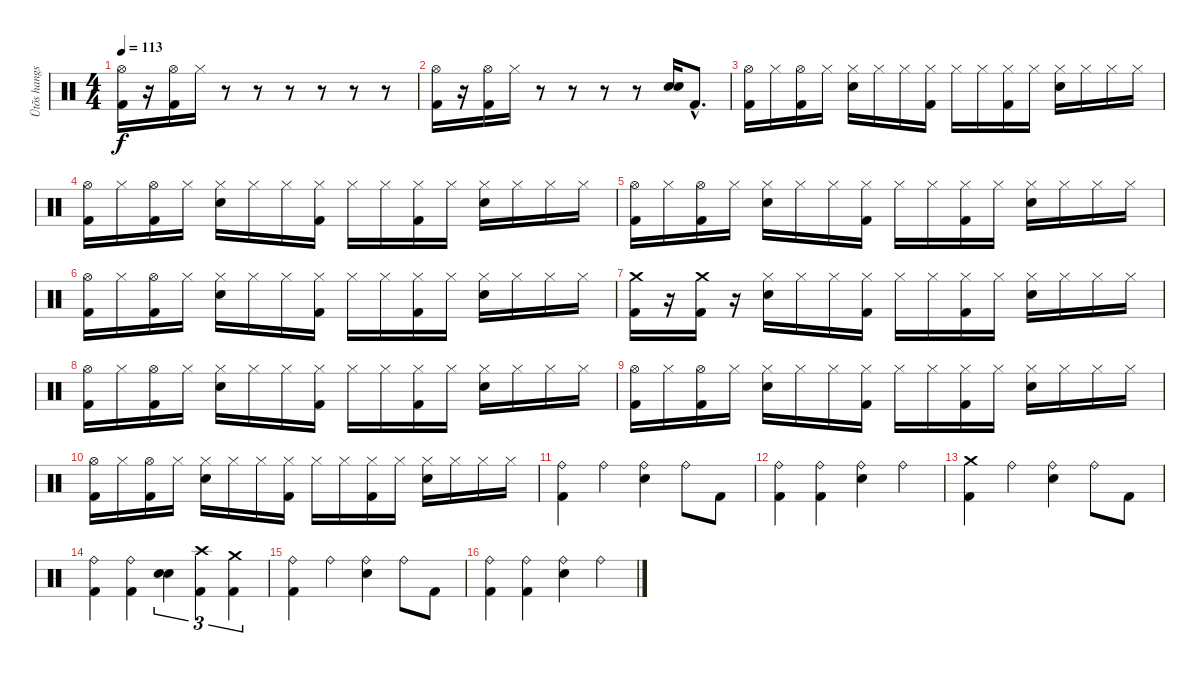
\track ("Ütõs hangszer" "Ütõs hangs") {instrument percussion}
\staff {score}
\articulation defaults
\ts (4 4)
\tempo 113
\clef neutral
\ks c
("Hi-Hat (open)" "Kick (hit) 2").16{dy f} r.16 ("Hi-Hat (open)" "Kick (hit) 2").16 "Hi-Hat (closed)".16 r.8 r.8 r.8 r.8 r.8 r.8 |
("Hi-Hat (open)" "Kick (hit) 2").16 r.16 ("Hi-Hat (open)" "Kick (hit) 2").16 "Hi-Hat (closed)".16 r.8 r.8 r.8 r.8 ("Electric Snare (hit)" "Electric Snare (hit)").16 "Kick (hit) 2"{hac}.8{d} |
("Hi-Hat (open)" "Kick (hit) 2").16 "Hi-Hat (closed)".16 ("Hi-Hat (open)" "Kick (hit) 2").16 "Hi-Hat (closed)".16 ("Hi-Hat (closed)" "Electric Snare (hit)").16 "Hi-Hat (closed)".16 "Hi-Hat (closed)".16 ("Hi-Hat (closed)" "Kick (hit) 2").16 "Hi-Hat (closed)".16 "Hi-Hat (closed)".16 ("Hi-Hat (closed)" "Kick (hit) 2").16 "Hi-Hat (closed)".16 ("Hi-Hat (closed)" "Electric Snare (hit)").16 "Hi-Hat (closed)".16 "Hi-Hat (closed)".16 "Hi-Hat (closed)".16 |
("Hi-Hat (open)" "Kick (hit) 2").16 "Hi-Hat (closed)".16 ("Hi-Hat (open)" "Kick (hit) 2").16 "Hi-Hat (closed)".16 ("Hi-Hat (closed)" "Electric Snare (hit)").16 "Hi-Hat (closed)".16 "Hi-Hat (closed)".16 ("Hi-Hat (closed)" "Kick (hit) 2").16 "Hi-Hat (closed)".16 "Hi-Hat (closed)".16 ("Hi-Hat (closed)" "Kick (hit) 2").16 "Hi-Hat (closed)".16 ("Hi-Hat (closed)" "Electric Snare (hit)").16 "Hi-Hat (closed)".16 "Hi-Hat (closed)".16 "Hi-Hat (closed)".16 |
("Hi-Hat (open)" "Kick (hit) 2").16 "Hi-Hat (closed)".16 ("Hi-Hat (open)" "Kick (hit) 2").16 "Hi-Hat (closed)".16 ("Hi-Hat (closed)" "Electric Snare (hit)").16 "Hi-Hat (closed)".16 "Hi-Hat (closed)".16 ("Hi-Hat (closed)" "Kick (hit) 2").16 "Hi-Hat (closed)".16 "Hi-Hat (closed)".16 ("Hi-Hat (closed)" "Kick (hit) 2").16 "Hi-Hat (closed)".16 ("Hi-Hat (closed)" "Electric Snare (hit)").16 "Hi-Hat (closed)".16 "Hi-Hat (closed)".16 "Hi-Hat (closed)".16 |
("Hi-Hat (open)" "Kick (hit) 2").16 "Hi-Hat (closed)".16 ("Hi-Hat (open)" "Kick (hit) 2").16 "Hi-Hat (closed)".16 ("Hi-Hat (closed)" "Electric Snare (hit)").16 "Hi-Hat (closed)".16 "Hi-Hat (closed)".16 ("Hi-Hat (closed)" "Kick (hit) 2").16 "Hi-Hat (closed)".16 "Hi-Hat (closed)".16 ("Hi-Hat (closed)" "Kick (hit) 2").16 "Hi-Hat (closed)".16 ("Hi-Hat (closed)" "Electric Snare (hit)").16 "Hi-Hat (closed)".16 "Hi-Hat (closed)".16 "Hi-Hat (closed)".16 |
("Crash medium (hit)" "Kick (hit) 2").16 r.16 ("Crash medium (hit)" "Kick (hit) 2").16 r.16 ("Hi-Hat (closed)" "Electric Snare (hit)").16 "Hi-Hat (closed)".16 "Hi-Hat (closed)".16 ("Hi-Hat (closed)" "Kick (hit) 2").16 "Hi-Hat (closed)".16 "Hi-Hat (closed)".16 ("Hi-Hat (closed)" "Kick (hit) 2").16 "Hi-Hat (closed)".16 ("Hi-Hat (closed)" "Electric Snare (hit)").16 "Hi-Hat (closed)".16 "Hi-Hat (closed)".16 "Hi-Hat (closed)".16 |
("Hi-Hat (open)" "Kick (hit) 2").16 "Hi-Hat (closed)".16 ("Hi-Hat (open)" "Kick (hit) 2").16 "Hi-Hat (closed)".16 ("Hi-Hat (closed)" "Electric Snare (hit)").16 "Hi-Hat (closed)".16 "Hi-Hat (closed)".16 ("Hi-Hat (closed)" "Kick (hit) 2").16 "Hi-Hat (closed)".16 "Hi-Hat (closed)".16 ("Hi-Hat (closed)" "Kick (hit) 2").16 "Hi-Hat (closed)".16 ("Hi-Hat (closed)" "Electric Snare (hit)").16 "Hi-Hat (closed)".16 "Hi-Hat (closed)".16 "Hi-Hat (closed)".16 |
("Hi-Hat (open)" "Kick (hit) 2").16 "Hi-Hat (closed)".16 ("Hi-Hat (open)" "Kick (hit) 2").16 "Hi-Hat (closed)".16 ("Hi-Hat (closed)" "Electric Snare (hit)").16 "Hi-Hat (closed)".16 "Hi-Hat (closed)".16 ("Hi-Hat (closed)" "Kick (hit) 2").16 "Hi-Hat (closed)".16 "Hi-Hat (closed)".16 ("Hi-Hat (closed)" "Kick (hit) 2").16 "Hi-Hat (closed)".16 ("Hi-Hat (closed)" "Electric Snare (hit)").16 "Hi-Hat (closed)".16 "Hi-Hat (closed)".16 "Hi-Hat (closed)".16 |
("Hi-Hat (open)" "Kick (hit) 2").16 "Hi-Hat (closed)".16 ("Hi-Hat (open)" "Kick (hit) 2").16 "Hi-Hat (closed)".16 ("Hi-Hat (closed)" "Electric Snare (hit)").16 "Hi-Hat (closed)".16 "Hi-Hat (closed)".16 ("Hi-Hat (closed)" "Kick (hit) 2").16 "Hi-Hat (closed)".16 "Hi-Hat (closed)".16 ("Hi-Hat (closed)" "Kick (hit) 2").16 "Hi-Hat (closed)".16 ("Hi-Hat (closed)" "Electric Snare (hit)").16 "Hi-Hat (closed)".16 "Hi-Hat (closed)".16 "Hi-Hat (closed)".16 |
("Ride (bell)" "Kick (hit) 2").4 "Ride (bell)".4 ("Ride (bell)" "Electric Snare (hit)").4 "Ride (bell)".8 "Kick (hit) 2".8 |
("Ride (bell)" "Kick (hit) 2").4 ("Ride (bell)" "Kick (hit) 2").4 ("Ride (bell)" "Electric Snare (hit)").4 "Ride (bell)".4 |
("Crash medium (hit)" "Kick (hit) 2").4 "Ride (bell)".4 ("Ride (bell)" "Electric Snare (hit)").4 "Ride (bell)".8 "Kick (hit) 2".8 |
("Ride (bell)" "Kick (hit) 2").4 ("Ride (bell)" "Kick (hit) 2").4 ("Electric Snare (hit)" "Electric Snare (hit)").4{tu (3 2)} ("Crash high (hit)" "Kick (hit) 2").4{tu (3 2)} ("Crash medium (hit)" "Kick (hit) 2").4{tu (3 2)} |
("Ride (bell)" "Kick (hit) 2").4 "Ride (bell)".4 ("Ride (bell)" "Electric Snare (hit)").4 "Ride (bell)".8 "Kick (hit) 2".8 |
("Ride (bell)" "Kick (hit) 2").4 ("Ride (bell)" "Kick (hit) 2").4 ("Ride (bell)" "Electric Snare (hit)").4 "Ride (bell)".4
